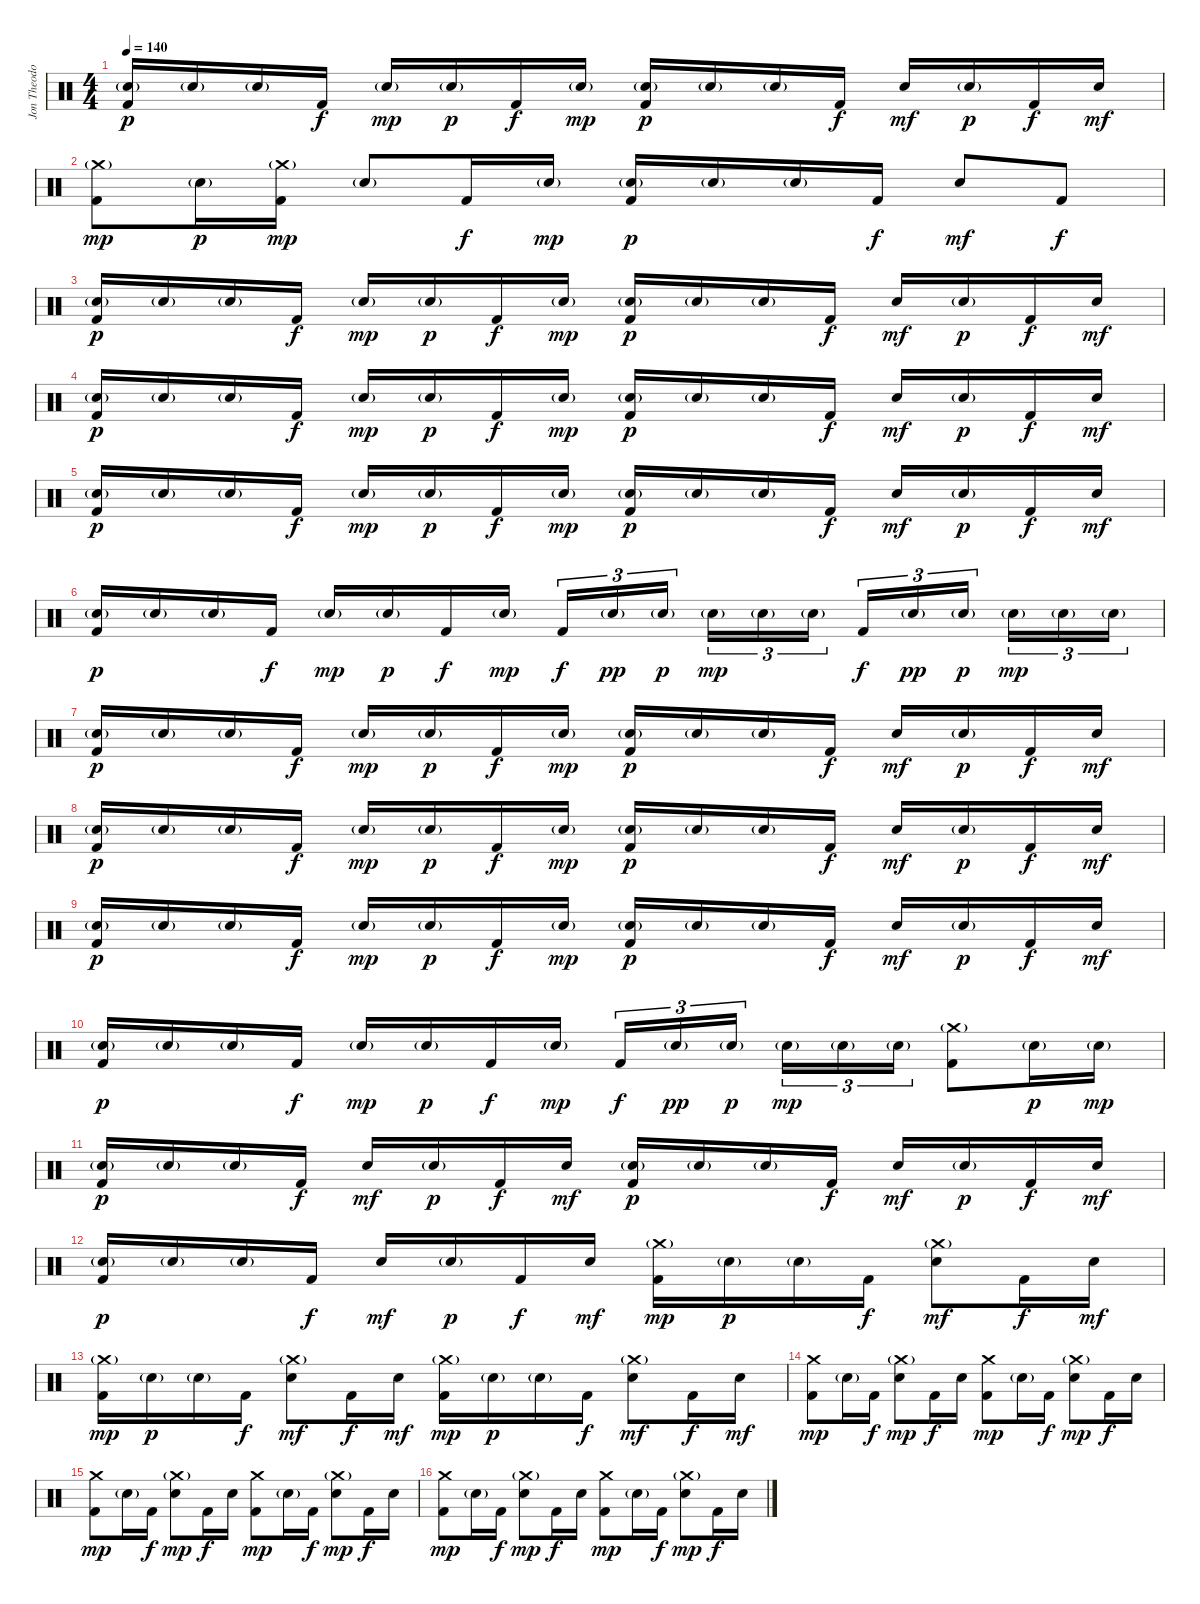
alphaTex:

\track ("Jon Theodore - Drums" "Jon Theodo") {instrument percussion}
\staff {score}
\articulation defaults
\ts (4 4)
\tempo 140
\clef neutral
\ks c
("Electric Snare (hit)"{g} "Kick (hit) 2").16{dy p} "Electric Snare (hit)"{g}.16 "Electric Snare (hit)"{g}.16 "Kick (hit) 2".16{dy f} "Electric Snare (hit)"{g}.16{dy mp} "Electric Snare (hit)"{g}.16{dy p} "Kick (hit) 2".16{dy f} "Electric Snare (hit)"{g}.16{dy mp} ("Electric Snare (hit)"{g} "Kick (hit) 2").16{dy p} "Electric Snare (hit)"{g}.16 "Electric Snare (hit)"{g}.16 "Kick (hit) 2".16{dy f} "Electric Snare (hit)".16{dy mf} "Electric Snare (hit)"{g}.16{dy p} "Kick (hit) 2".16{dy f} "Electric Snare (hit)".16{dy mf} |
("Crash medium (hit)"{g} "Kick (hit) 2").8{dy mp} "Electric Snare (hit)"{g}.16{dy p} ("Crash medium (hit)"{g} "Kick (hit) 2").16{dy mp} "Electric Snare (hit)"{g}.8 "Kick (hit) 2".16{dy f} "Electric Snare (hit)"{g}.16{dy mp} ("Electric Snare (hit)"{g} "Kick (hit) 2").16{dy p} "Electric Snare (hit)"{g}.16 "Electric Snare (hit)"{g}.16 "Kick (hit) 2".16{dy f} "Electric Snare (hit)".8{dy mf} "Kick (hit) 2".8{dy f} |
("Electric Snare (hit)"{g} "Kick (hit) 2").16{dy p} "Electric Snare (hit)"{g}.16 "Electric Snare (hit)"{g}.16 "Kick (hit) 2".16{dy f} "Electric Snare (hit)"{g}.16{dy mp} "Electric Snare (hit)"{g}.16{dy p} "Kick (hit) 2".16{dy f} "Electric Snare (hit)"{g}.16{dy mp} ("Electric Snare (hit)"{g} "Kick (hit) 2").16{dy p} "Electric Snare (hit)"{g}.16 "Electric Snare (hit)"{g}.16 "Kick (hit) 2".16{dy f} "Electric Snare (hit)".16{dy mf} "Electric Snare (hit)"{g}.16{dy p} "Kick (hit) 2".16{dy f} "Electric Snare (hit)".16{dy mf} |
("Electric Snare (hit)"{g} "Kick (hit) 2").16{dy p} "Electric Snare (hit)"{g}.16 "Electric Snare (hit)"{g}.16 "Kick (hit) 2".16{dy f} "Electric Snare (hit)"{g}.16{dy mp} "Electric Snare (hit)"{g}.16{dy p} "Kick (hit) 2".16{dy f} "Electric Snare (hit)"{g}.16{dy mp} ("Electric Snare (hit)"{g} "Kick (hit) 2").16{dy p} "Electric Snare (hit)"{g}.16 "Electric Snare (hit)"{g}.16 "Kick (hit) 2".16{dy f} "Electric Snare (hit)".16{dy mf} "Electric Snare (hit)"{g}.16{dy p} "Kick (hit) 2".16{dy f} "Electric Snare (hit)".16{dy mf} |
("Electric Snare (hit)"{g} "Kick (hit) 2").16{dy p} "Electric Snare (hit)"{g}.16 "Electric Snare (hit)"{g}.16 "Kick (hit) 2".16{dy f} "Electric Snare (hit)"{g}.16{dy mp} "Electric Snare (hit)"{g}.16{dy p} "Kick (hit) 2".16{dy f} "Electric Snare (hit)"{g}.16{dy mp} ("Electric Snare (hit)"{g} "Kick (hit) 2").16{dy p} "Electric Snare (hit)"{g}.16 "Electric Snare (hit)"{g}.16 "Kick (hit) 2".16{dy f} "Electric Snare (hit)".16{dy mf} "Electric Snare (hit)"{g}.16{dy p} "Kick (hit) 2".16{dy f} "Electric Snare (hit)".16{dy mf} |
("Electric Snare (hit)"{g} "Kick (hit) 2").16{dy p} "Electric Snare (hit)"{g}.16 "Electric Snare (hit)"{g}.16 "Kick (hit) 2".16{dy f} "Electric Snare (hit)"{g}.16{dy mp} "Electric Snare (hit)"{g}.16{dy p} "Kick (hit) 2".16{dy f} "Electric Snare (hit)"{g}.16{dy mp} "Kick (hit) 2".16{tu (3 2) dy f} "Electric Snare (hit)"{g}.16{tu (3 2) dy pp} "Electric Snare (hit)"{g}.16{tu (3 2) dy p beam splitsecondary} "Electric Snare (hit)"{g}.16{tu (3 2) dy mp} "Electric Snare (hit)"{g}.16{tu (3 2)} "Electric Snare (hit)"{g}.16{tu (3 2)} "Kick (hit) 2".16{tu (3 2) dy f} "Electric Snare (hit)"{g}.16{tu (3 2) dy pp} "Electric Snare (hit)"{g}.16{tu (3 2) dy p beam splitsecondary} "Electric Snare (hit)"{g}.16{tu (3 2) dy mp} "Electric Snare (hit)"{g}.16{tu (3 2)} "Electric Snare (hit)"{g}.16{tu (3 2)} |
("Electric Snare (hit)"{g} "Kick (hit) 2").16{dy p} "Electric Snare (hit)"{g}.16 "Electric Snare (hit)"{g}.16 "Kick (hit) 2".16{dy f} "Electric Snare (hit)"{g}.16{dy mp} "Electric Snare (hit)"{g}.16{dy p} "Kick (hit) 2".16{dy f} "Electric Snare (hit)"{g}.16{dy mp} ("Electric Snare (hit)"{g} "Kick (hit) 2").16{dy p} "Electric Snare (hit)"{g}.16 "Electric Snare (hit)"{g}.16 "Kick (hit) 2".16{dy f} "Electric Snare (hit)".16{dy mf} "Electric Snare (hit)"{g}.16{dy p} "Kick (hit) 2".16{dy f} "Electric Snare (hit)".16{dy mf} |
("Electric Snare (hit)"{g} "Kick (hit) 2").16{dy p} "Electric Snare (hit)"{g}.16 "Electric Snare (hit)"{g}.16 "Kick (hit) 2".16{dy f} "Electric Snare (hit)"{g}.16{dy mp} "Electric Snare (hit)"{g}.16{dy p} "Kick (hit) 2".16{dy f} "Electric Snare (hit)"{g}.16{dy mp} ("Electric Snare (hit)"{g} "Kick (hit) 2").16{dy p} "Electric Snare (hit)"{g}.16 "Electric Snare (hit)"{g}.16 "Kick (hit) 2".16{dy f} "Electric Snare (hit)".16{dy mf} "Electric Snare (hit)"{g}.16{dy p} "Kick (hit) 2".16{dy f} "Electric Snare (hit)".16{dy mf} |
("Electric Snare (hit)"{g} "Kick (hit) 2").16{dy p} "Electric Snare (hit)"{g}.16 "Electric Snare (hit)"{g}.16 "Kick (hit) 2".16{dy f} "Electric Snare (hit)"{g}.16{dy mp} "Electric Snare (hit)"{g}.16{dy p} "Kick (hit) 2".16{dy f} "Electric Snare (hit)"{g}.16{dy mp} ("Electric Snare (hit)"{g} "Kick (hit) 2").16{dy p} "Electric Snare (hit)"{g}.16 "Electric Snare (hit)"{g}.16 "Kick (hit) 2".16{dy f} "Electric Snare (hit)".16{dy mf} "Electric Snare (hit)"{g}.16{dy p} "Kick (hit) 2".16{dy f} "Electric Snare (hit)".16{dy mf} |
("Electric Snare (hit)"{g} "Kick (hit) 2").16{dy p} "Electric Snare (hit)"{g}.16 "Electric Snare (hit)"{g}.16 "Kick (hit) 2".16{dy f} "Electric Snare (hit)"{g}.16{dy mp} "Electric Snare (hit)"{g}.16{dy p} "Kick (hit) 2".16{dy f} "Electric Snare (hit)"{g}.16{dy mp} "Kick (hit) 2".16{tu (3 2) dy f} "Electric Snare (hit)"{g}.16{tu (3 2) dy pp} "Electric Snare (hit)"{g}.16{tu (3 2) dy p beam splitsecondary} "Electric Snare (hit)"{g}.16{tu (3 2) dy mp} "Electric Snare (hit)"{g}.16{tu (3 2)} "Electric Snare (hit)"{g}.16{tu (3 2)} ("Crash medium (hit)"{g} "Kick (hit) 2").8 "Electric Snare (hit)"{g}.16{dy p} "Electric Snare (hit)"{g}.16{dy mp} |
("Electric Snare (hit)"{g} "Kick (hit) 2").16{dy p} "Electric Snare (hit)"{g}.16 "Electric Snare (hit)"{g}.16 "Kick (hit) 2".16{dy f} "Electric Snare (hit)".16{dy mf} "Electric Snare (hit)"{g}.16{dy p} "Kick (hit) 2".16{dy f} "Electric Snare (hit)".16{dy mf} ("Electric Snare (hit)"{g} "Kick (hit) 2").16{dy p} "Electric Snare (hit)"{g}.16 "Electric Snare (hit)"{g}.16 "Kick (hit) 2".16{dy f} "Electric Snare (hit)".16{dy mf} "Electric Snare (hit)"{g}.16{dy p} "Kick (hit) 2".16{dy f} "Electric Snare (hit)".16{dy mf} |
("Electric Snare (hit)"{g} "Kick (hit) 2").16{dy p} "Electric Snare (hit)"{g}.16 "Electric Snare (hit)"{g}.16 "Kick (hit) 2".16{dy f} "Electric Snare (hit)".16{dy mf} "Electric Snare (hit)"{g}.16{dy p} "Kick (hit) 2".16{dy f} "Electric Snare (hit)".16{dy mf} ("Crash medium (hit)"{g} "Kick (hit) 2").16{dy mp} "Electric Snare (hit)"{g}.16{dy p} "Electric Snare (hit)"{g}.16 "Kick (hit) 2".16{dy f} ("Crash medium (hit)"{g} "Electric Snare (hit)").8{dy mf} "Kick (hit) 2".16{dy f} "Electric Snare (hit)".16{dy mf} |
("Crash medium (hit)"{g} "Kick (hit) 2").16{dy mp} "Electric Snare (hit)"{g}.16{dy p} "Electric Snare (hit)"{g}.16 "Kick (hit) 2".16{dy f} ("Crash medium (hit)"{g} "Electric Snare (hit)").8{dy mf} "Kick (hit) 2".16{dy f} "Electric Snare (hit)".16{dy mf} ("Crash medium (hit)"{g} "Kick (hit) 2").16{dy mp} "Electric Snare (hit)"{g}.16{dy p} "Electric Snare (hit)"{g}.16 "Kick (hit) 2".16{dy f} ("Crash medium (hit)"{g} "Electric Snare (hit)").8{dy mf} "Kick (hit) 2".16{dy f} "Electric Snare (hit)".16{dy mf} |
("Crash medium (hit)" "Kick (hit) 2").8{dy mp} "Electric Snare (hit)"{g}.16 "Kick (hit) 2".16{dy f} ("Crash medium (hit)"{g} "Electric Snare (hit)").8{dy mp} "Kick (hit) 2".16{dy f} "Electric Snare (hit)".16 ("Crash medium (hit)" "Kick (hit) 2").8{dy mp} "Electric Snare (hit)"{g}.16 "Kick (hit) 2".16{dy f} ("Crash medium (hit)"{g} "Electric Snare (hit)").8{dy mp} "Kick (hit) 2".16{dy f} "Electric Snare (hit)".16 |
("Crash medium (hit)" "Kick (hit) 2").8{dy mp} "Electric Snare (hit)"{g}.16 "Kick (hit) 2".16{dy f} ("Crash medium (hit)"{g} "Electric Snare (hit)").8{dy mp} "Kick (hit) 2".16{dy f} "Electric Snare (hit)".16 ("Crash medium (hit)" "Kick (hit) 2").8{dy mp} "Electric Snare (hit)"{g}.16 "Kick (hit) 2".16{dy f} ("Crash medium (hit)"{g} "Electric Snare (hit)").8{dy mp} "Kick (hit) 2".16{dy f} "Electric Snare (hit)".16 |
("Crash medium (hit)" "Kick (hit) 2").8{dy mp} "Electric Snare (hit)"{g}.16 "Kick (hit) 2".16{dy f} ("Crash medium (hit)"{g} "Electric Snare (hit)").8{dy mp} "Kick (hit) 2".16{dy f} "Electric Snare (hit)".16 ("Crash medium (hit)" "Kick (hit) 2").8{dy mp} "Electric Snare (hit)"{g}.16 "Kick (hit) 2".16{dy f} ("Crash medium (hit)"{g} "Electric Snare (hit)").8{dy mp} "Kick (hit) 2".16{dy f} "Electric Snare (hit)".16
